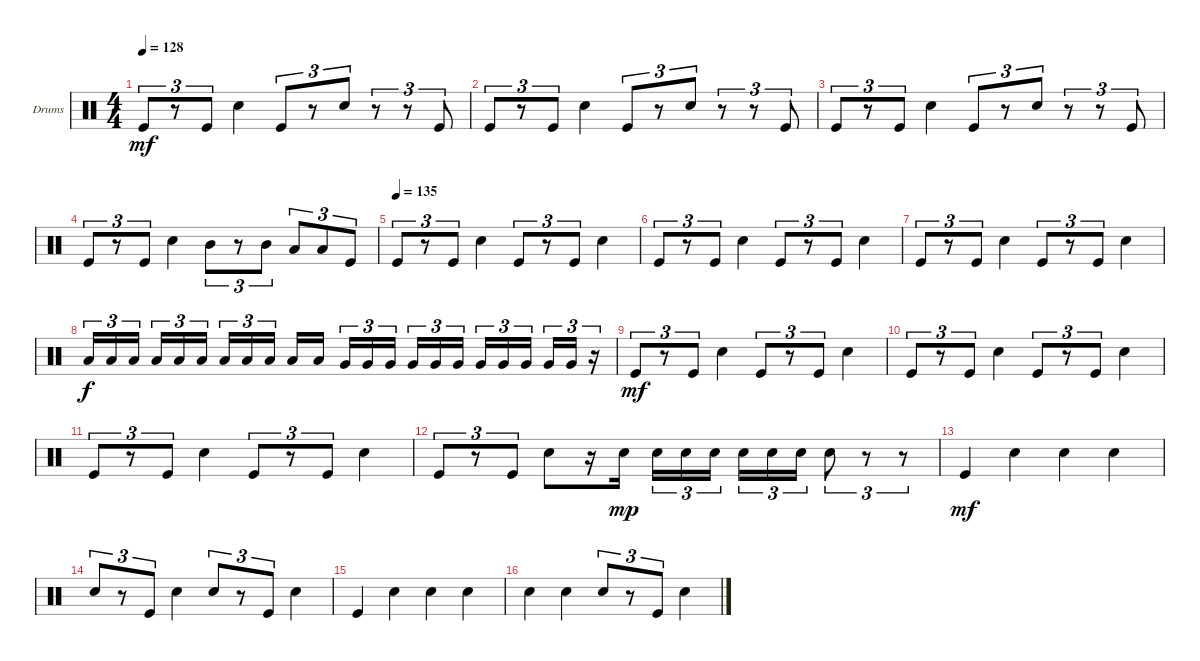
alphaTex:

\defaultSystemsLayout 4
\bracketExtendMode groupsimilarinstruments
\firstSystemTrackNameOrientation horizontal
\otherSystemsTrackNameOrientation horizontal
\track ("Drumkit" "Drums") {instrument percussion}
\staff {score}
\articulation defaults
\ts (4 4)
\tempo 128
\clef neutral
\scale
0.333333
\ks c "Kick (hit)".8{tu (3 2) dy mf}
r.8{tu (3 2)} "Kick (hit)".8{tu (3 2)} "Snare (hit) 2".4 "Kick (hit)".8{tu (3 2)} r.8{tu (3 2)} "Snare (hit) 2".8{tu (3 2)} r.8{tu (3 2)} r.8{tu (3 2)} "Kick (hit)".8{tu (3 2)} |
\scale
0.333333 "Kick (hit)".8{tu (3 2)} r.8{tu (3 2)} "Kick (hit)".8{tu (3 2)} "Snare (hit) 2".4 "Kick (hit)".8{tu (3 2)} r.8{tu (3 2)} "Snare (hit) 2".8{tu (3 2)} r.8{tu (3 2)} r.8{tu (3 2)} "Kick (hit)".8{tu (3 2)} |
\scale
0.333333 "Kick (hit)".8{tu (3 2)} r.8{tu (3 2)} "Kick (hit)".8{tu (3 2)} "Snare (hit) 2".4 "Kick (hit)".8{tu (3 2)} r.8{tu (3 2)} "Snare (hit) 2".8{tu (3 2)} r.8{tu (3 2)} r.8{tu (3 2)} "Kick (hit)".8{tu (3 2)} |
\scale
0.333333 "Kick (hit)".8{tu (3 2)} r.8{tu (3 2)} "Kick (hit)".8{tu (3 2)} "Snare (hit) 2".4 "Mid Tom (hit)".8{tu (3 2)} r.8{tu (3 2)} "Mid Tom (hit)".8{tu (3 2)} "Low Tom (hit)".8{tu (3 2)} "Low Tom (hit)".8{tu (3 2)} "Kick (hit)".8{tu (3 2)} |
\tempo 135
\scale
0.333333 "Kick (hit)".8{tu (3 2)} r.8{tu (3 2)} "Kick (hit)".8{tu (3 2)} "Snare (hit) 2".4 "Kick (hit)".8{tu (3 2)} r.8{tu (3 2)} "Kick (hit)".8{tu (3 2)} "Snare (hit) 2".4 |
\scale
0.333333 "Kick (hit)".8{tu (3 2)} r.8{tu (3 2)} "Kick (hit)".8{tu (3 2)} "Snare (hit) 2".4 "Kick (hit)".8{tu (3 2)} r.8{tu (3 2)} "Kick (hit)".8{tu (3 2)} "Snare (hit) 2".4 |
\scale
0.333333 "Kick (hit)".8{tu (3 2)} r.8{tu (3 2)} "Kick (hit)".8{tu (3 2)} "Snare (hit) 2".4 "Kick (hit)".8{tu (3 2)} r.8{tu (3 2)} "Kick (hit)".8{tu (3 2)} "Snare (hit) 2".4 |
\scale
0.333333 "Low Tom (hit)".16{tu (3 2) dy f} "Low Tom (hit)".16{tu (3 2)} "Low Tom (hit)".16{tu (3 2)} "Low Tom (hit)".16{tu (3 2)} "Low Tom (hit)".16{tu (3 2)} "Low Tom (hit)".16{tu (3 2)} "Low Tom (hit)".16{tu (3 2)} "Low Tom (hit)".16{tu (3 2)} "Low Tom (hit)".16{tu (3 2)} "Low Tom (hit)".16 "Low Tom (hit)".16 "Very Low Tom (hit)".16{tu (3 2)} "Very Low Tom (hit)".16{tu (3 2)} "Very Low Tom (hit)".16{tu (3 2)} "Very Low Tom (hit)".16{tu (3 2)} "Very Low Tom (hit)".16{tu (3 2)} "Very Low Tom (hit)".16{tu (3 2)} "Very Low Tom (hit)".16{tu (3 2)} "Very Low Tom (hit)".16{tu (3 2)} "Very Low Tom (hit)".16{tu (3 2)} "Very Low Tom (hit)".16{tu (3 2)} "Very Low Tom (hit)".16{tu (3 2)} r.16{tu (3 2)} |
\scale
0.333333 "Kick (hit)".8{tu (3 2) dy mf} r.8{tu (3 2)} "Kick (hit)".8{tu (3 2)} "Snare (hit) 2".4 "Kick (hit)".8{tu (3 2)} r.8{tu (3 2)} "Kick (hit)".8{tu (3 2)} "Snare (hit) 2".4 |
\scale
0.333333 "Kick (hit)".8{tu (3 2)} r.8{tu (3 2)} "Kick (hit)".8{tu (3 2)} "Snare (hit) 2".4 "Kick (hit)".8{tu (3 2)} r.8{tu (3 2)} "Kick (hit)".8{tu (3 2)} "Snare (hit) 2".4 |
\scale
0.333333 "Kick (hit)".8{tu (3 2)} r.8{tu (3 2)} "Kick (hit)".8{tu (3 2)} "Snare (hit) 2".4 "Kick (hit)".8{tu (3 2)} r.8{tu (3 2)} "Kick (hit)".8{tu (3 2)} "Snare (hit) 2".4 |
\scale
0.333333 "Kick (hit)".8{tu (3 2)} r.8{tu (3 2)} "Kick (hit)".8{tu (3 2)} "Snare (hit) 2".8 r.16 "Snare (hit) 2".16{dy mp} "Snare (hit) 2".16{tu (3 2)} "Snare (hit) 2".16{tu (3 2)} "Snare (hit) 2".16{tu (3 2)} "Snare (hit) 2".16{tu (3 2)} "Snare (hit) 2".16{tu (3 2)} "Snare (hit) 2".16{tu (3 2)} "Snare (hit) 2".8{tu (3 2)} r.8{tu (3 2)} r.8{tu (3 2)} |
\scale
0.333333 "Kick (hit)".4{dy mf} "Snare (hit) 2".4 "Snare (hit) 2".4 "Snare (hit) 2".4 |
\scale
0.333333 "Snare (hit) 2".8{tu (3 2)} r.8{tu (3 2)} "Kick (hit)".8{tu (3 2)} "Snare (hit) 2".4 "Snare (hit) 2".8{tu (3 2)} r.8{tu (3 2)} "Kick (hit)".8{tu (3 2)} "Snare (hit) 2".4 |
\scale
0.333333 "Kick (hit)".4 "Snare (hit) 2".4 "Snare (hit) 2".4 "Snare (hit) 2".4 |
\scale
0.333333 "Snare (hit) 2".4 "Snare (hit) 2".4 "Snare (hit) 2".8{tu (3 2)} r.8{tu (3 2)} "Kick (hit)".8{tu (3 2)} "Snare (hit) 2".4
